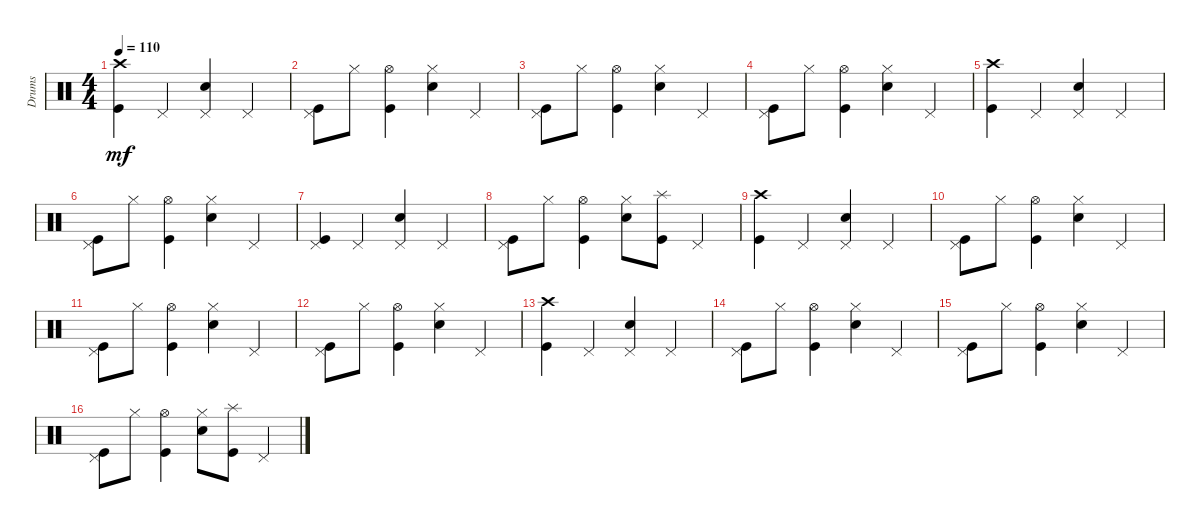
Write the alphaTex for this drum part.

\track ("Drums" "Drums") {instrument percussion}
\staff {score}
\articulation defaults
\ts (4 4)
\tempo 110
\clef neutral
\ks c
("Crash high (hit)" "Kick (hit)").4{dy mf} "Pedal Hi-Hat (hit)".4 ("Pedal Hi-Hat (hit)" "Snare (hit) 2").4 "Pedal Hi-Hat (hit)".4 |
("Pedal Hi-Hat (hit)" "Kick (hit)").8 "Hi-Hat (closed)".8 ("Hi-Hat (open)" "Kick (hit)").4 ("Hi-Hat (closed)" "Snare (hit) 2").4 "Pedal Hi-Hat (hit)".4 |
("Pedal Hi-Hat (hit)" "Kick (hit)").8 "Hi-Hat (closed)".8 ("Hi-Hat (open)" "Kick (hit)").4 ("Hi-Hat (closed)" "Snare (hit) 2").4 "Pedal Hi-Hat (hit)".4 |
("Pedal Hi-Hat (hit)" "Kick (hit)").8 "Hi-Hat (closed)".8 ("Hi-Hat (open)" "Kick (hit)").4 ("Hi-Hat (closed)" "Snare (hit) 2").4 "Pedal Hi-Hat (hit)".4 |
("Crash high (hit)" "Kick (hit)").4 "Pedal Hi-Hat (hit)".4 ("Pedal Hi-Hat (hit)" "Snare (hit) 2").4 "Pedal Hi-Hat (hit)".4 |
("Pedal Hi-Hat (hit)" "Kick (hit)").8 "Hi-Hat (closed)".8 ("Hi-Hat (open)" "Kick (hit)").4 ("Hi-Hat (closed)" "Snare (hit) 2").4 "Pedal Hi-Hat (hit)".4 |
("Pedal Hi-Hat (hit)" "Kick (hit)").4 "Pedal Hi-Hat (hit)".4 ("Pedal Hi-Hat (hit)" "Snare (hit) 2").4 "Pedal Hi-Hat (hit)".4 |
("Pedal Hi-Hat (hit)" "Kick (hit)").8 "Hi-Hat (closed)".8 ("Hi-Hat (open)" "Kick (hit)").4 ("Hi-Hat (closed)" "Snare (hit) 2").8 ("Splash (hit)" "Kick (hit)").8 "Pedal Hi-Hat (hit)".4 |
("Crash high (hit)" "Kick (hit)").4 "Pedal Hi-Hat (hit)".4 ("Pedal Hi-Hat (hit)" "Snare (hit) 2").4 "Pedal Hi-Hat (hit)".4 |
("Pedal Hi-Hat (hit)" "Kick (hit)").8 "Hi-Hat (closed)".8 ("Hi-Hat (open)" "Kick (hit)").4 ("Hi-Hat (closed)" "Snare (hit) 2").4 "Pedal Hi-Hat (hit)".4 |
("Pedal Hi-Hat (hit)" "Kick (hit)").8 "Hi-Hat (closed)".8 ("Hi-Hat (open)" "Kick (hit)").4 ("Hi-Hat (closed)" "Snare (hit) 2").4 "Pedal Hi-Hat (hit)".4 |
("Pedal Hi-Hat (hit)" "Kick (hit)").8 "Hi-Hat (closed)".8 ("Hi-Hat (open)" "Kick (hit)").4 ("Hi-Hat (closed)" "Snare (hit) 2").4 "Pedal Hi-Hat (hit)".4 |
("Crash high (hit)" "Kick (hit)").4 "Pedal Hi-Hat (hit)".4 ("Pedal Hi-Hat (hit)" "Snare (hit) 2").4 "Pedal Hi-Hat (hit)".4 |
("Pedal Hi-Hat (hit)" "Kick (hit)").8 "Hi-Hat (closed)".8 ("Hi-Hat (open)" "Kick (hit)").4 ("Hi-Hat (closed)" "Snare (hit) 2").4 "Pedal Hi-Hat (hit)".4 |
("Pedal Hi-Hat (hit)" "Kick (hit)").8 "Hi-Hat (closed)".8 ("Hi-Hat (open)" "Kick (hit)").4 ("Hi-Hat (closed)" "Snare (hit) 2").4 "Pedal Hi-Hat (hit)".4 |
("Pedal Hi-Hat (hit)" "Kick (hit)").8 "Hi-Hat (closed)".8 ("Hi-Hat (open)" "Kick (hit)").4 ("Hi-Hat (closed)" "Snare (hit) 2").8 ("Splash (hit)" "Kick (hit)").8 "Pedal Hi-Hat (hit)".4
